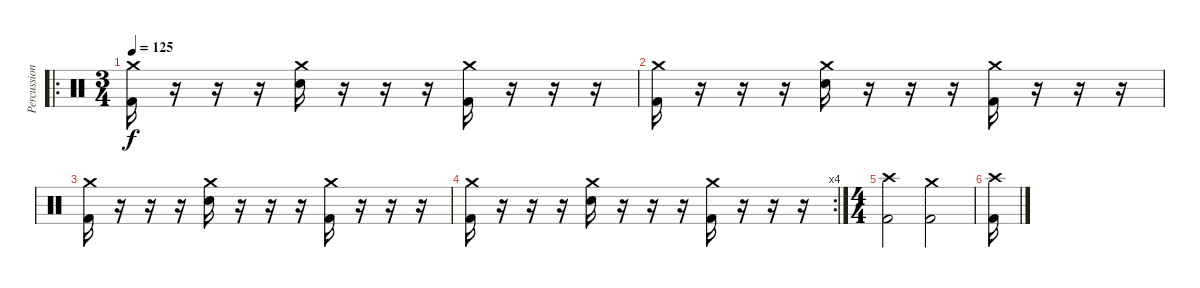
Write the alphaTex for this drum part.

\track ("Percussions" "Percussion") {instrument percussion}
\staff {score}
\articulation defaults
\ro
\ts (3 4)
\tempo 125
\clef neutral
\ks c
("Crash medium (hit)" "Kick (hit) 2").16{dy f} r.16 r.16 r.16 ("Crash medium (hit)" "Snare (hit) 2").16 r.16 r.16 r.16 ("Crash medium (hit)" "Kick (hit) 2").16 r.16 r.16 r.16 |
("Crash medium (hit)" "Kick (hit) 2").16 r.16 r.16 r.16 ("Crash medium (hit)" "Snare (hit) 2").16 r.16 r.16 r.16 ("Crash medium (hit)" "Kick (hit) 2").16 r.16 r.16 r.16 |
("Crash medium (hit)" "Kick (hit) 2").16 r.16 r.16 r.16 ("Crash medium (hit)" "Snare (hit) 2").16 r.16 r.16 r.16 ("Crash medium (hit)" "Kick (hit) 2").16 r.16 r.16 r.16 |
\rc 4
("Crash medium (hit)" "Kick (hit) 2").16 r.16 r.16 r.16 ("Crash medium (hit)" "Snare (hit) 2").16 r.16 r.16 r.16 ("Crash medium (hit)" "Kick (hit) 2").16 r.16 r.16 r.16 |
\ts (4 4)
("Crash high (hit)" "Kick (hit) 2").2 ("Kick (hit) 2" "Crash medium (hit)").2 |
("Crash high (hit)" "Kick (hit) 2").16
